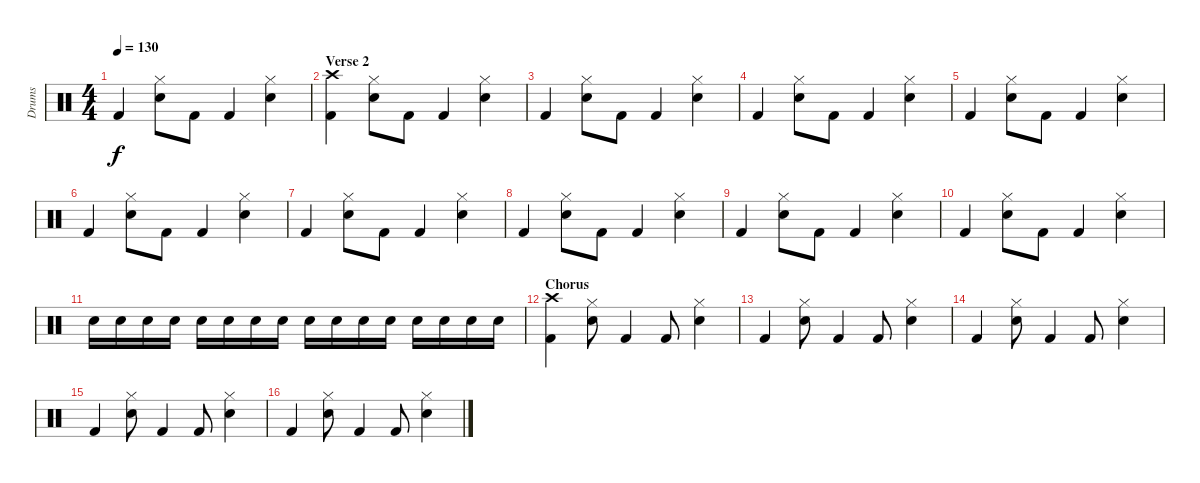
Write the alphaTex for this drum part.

\track ("Drums" "Drums") {instrument percussion}
\staff {score}
\articulation defaults
\ts (4 4)
\tempo 130
\clef neutral
\ks c "Kick (hit) 2".4{dy f}
("Hi-Hat (closed)" "Snare (hit) 2").8 "Kick (hit) 2".8 "Kick (hit) 2".4 ("Hi-Hat (closed)" "Snare (hit) 2").4 |
\section ("" "Verse 2")
("Crash high (hit)" "Kick (hit) 2").4 ("Hi-Hat (closed)" "Snare (hit) 2").8 "Kick (hit) 2".8 "Kick (hit) 2".4 ("Hi-Hat (closed)" "Snare (hit) 2").4 |
"Kick (hit) 2".4 ("Hi-Hat (closed)" "Snare (hit) 2").8 "Kick (hit) 2".8 "Kick (hit) 2".4 ("Hi-Hat (closed)" "Snare (hit) 2").4 |
"Kick (hit) 2".4 ("Hi-Hat (closed)" "Snare (hit) 2").8 "Kick (hit) 2".8 "Kick (hit) 2".4 ("Hi-Hat (closed)" "Snare (hit) 2").4 |
"Kick (hit) 2".4 ("Hi-Hat (closed)" "Snare (hit) 2").8 "Kick (hit) 2".8 "Kick (hit) 2".4 ("Hi-Hat (closed)" "Snare (hit) 2").4 |
"Kick (hit) 2".4 ("Hi-Hat (closed)" "Snare (hit) 2").8 "Kick (hit) 2".8 "Kick (hit) 2".4 ("Hi-Hat (closed)" "Snare (hit) 2").4 |
"Kick (hit) 2".4 ("Hi-Hat (closed)" "Snare (hit) 2").8 "Kick (hit) 2".8 "Kick (hit) 2".4 ("Hi-Hat (closed)" "Snare (hit) 2").4 |
"Kick (hit) 2".4 ("Hi-Hat (closed)" "Snare (hit) 2").8 "Kick (hit) 2".8 "Kick (hit) 2".4 ("Hi-Hat (closed)" "Snare (hit) 2").4 |
"Kick (hit) 2".4 ("Hi-Hat (closed)" "Snare (hit) 2").8 "Kick (hit) 2".8 "Kick (hit) 2".4 ("Hi-Hat (closed)" "Snare (hit) 2").4 |
"Kick (hit) 2".4 ("Hi-Hat (closed)" "Snare (hit) 2").8 "Kick (hit) 2".8 "Kick (hit) 2".4 ("Hi-Hat (closed)" "Snare (hit) 2").4 |
"Snare (hit) 2".16 "Snare (hit) 2".16 "Snare (hit) 2".16 "Snare (hit) 2".16 "Snare (hit) 2".16 "Snare (hit) 2".16 "Snare (hit) 2".16 "Snare (hit) 2".16 "Snare (hit) 2".16 "Snare (hit) 2".16 "Snare (hit) 2".16 "Snare (hit) 2".16 "Snare (hit) 2".16 "Snare (hit) 2".16 "Snare (hit) 2".16 "Snare (hit) 2".16 |
\section ("" "Chorus")
("Crash high (hit)" "Kick (hit) 2").4 ("Hi-Hat (closed)" "Snare (hit) 2").8 "Kick (hit) 2".4 "Kick (hit) 2".8 ("Hi-Hat (closed)" "Snare (hit) 2").4 |
"Kick (hit) 2".4 ("Hi-Hat (closed)" "Snare (hit) 2").8 "Kick (hit) 2".4 "Kick (hit) 2".8 ("Hi-Hat (closed)" "Snare (hit) 2").4 |
"Kick (hit) 2".4 ("Hi-Hat (closed)" "Snare (hit) 2").8 "Kick (hit) 2".4 "Kick (hit) 2".8 ("Hi-Hat (closed)" "Snare (hit) 2").4 |
"Kick (hit) 2".4 ("Hi-Hat (closed)" "Snare (hit) 2").8 "Kick (hit) 2".4 "Kick (hit) 2".8 ("Hi-Hat (closed)" "Snare (hit) 2").4 |
"Kick (hit) 2".4 ("Hi-Hat (closed)" "Snare (hit) 2").8 "Kick (hit) 2".4 "Kick (hit) 2".8 ("Hi-Hat (closed)" "Snare (hit) 2").4
